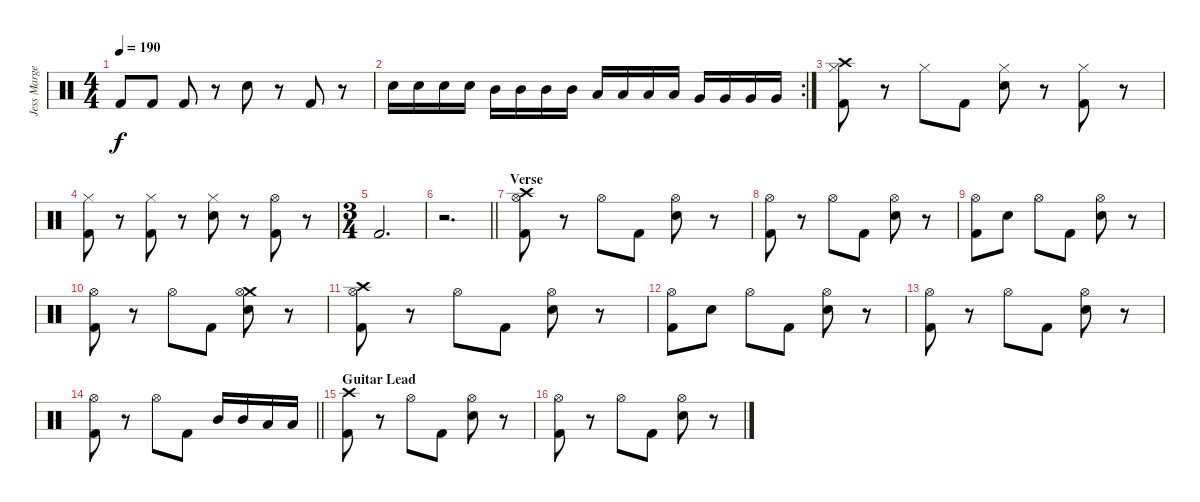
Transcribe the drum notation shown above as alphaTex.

\track ("Jess Margera" "Jess Marge") {instrument percussion}
\staff {score}
\articulation defaults
\ts (4 4)
\tempo 190
\clef neutral
\ks c "Kick (hit) 2".8{dy f} "Kick (hit) 2".8 "Kick (hit) 2".8
r.8 "Electric Snare (hit)".8 r.8 "Kick (hit) 2".8 r.8 |
\rc 2 "Electric Snare (hit)".16 "Electric Snare (hit)".16 "Electric Snare (hit)".16 "Electric Snare (hit)".16 "Mid Tom (hit)".16 "Mid Tom (hit)".16 "Mid Tom (hit)".16 "Mid Tom (hit)".16 "Low Tom (hit)".16 "Low Tom (hit)".16 "Low Tom (hit)".16 "Low Tom (hit)".16 "Very Low Tom (hit)".16 "Very Low Tom (hit)".16 "Very Low Tom (hit)".16 "Very Low Tom (hit)".16
|
("Crash high (hit)" "Hi-Hat (closed)" "Kick (hit) 2").8 r.8 "Hi-Hat (closed)".8 "Kick (hit) 2".8 ("Hi-Hat (closed)" "Electric Snare (hit)").8 r.8 ("Hi-Hat (closed)" "Kick (hit) 2").8 r.8 |
("Hi-Hat (closed)" "Kick (hit) 2").8 r.8 ("Hi-Hat (closed)" "Kick (hit) 2").8 r.8 ("Hi-Hat (closed)" "Electric Snare (hit)").8 r.8 ("Hi-Hat (open)" "Kick (hit) 2").8 r.8 |
\ts (3 4)
"Kick (hit) 2".2{d} |
\barLineRight lightlight
r.2{d} |
\section ("" "Verse")
("Crash high (hit)" "Hi-Hat (open)" "Kick (hit) 2").8 r.8 "Hi-Hat (open)".8 "Kick (hit) 2".8 ("Hi-Hat (open)" "Electric Snare (hit)").8 r.8 |
("Hi-Hat (open)" "Kick (hit) 2").8 r.8 "Hi-Hat (open)".8 "Kick (hit) 2".8 ("Hi-Hat (open)" "Electric Snare (hit)").8 r.8 |
("Hi-Hat (open)" "Kick (hit) 2").8 "Electric Snare (hit)".8 "Hi-Hat (open)".8 "Kick (hit) 2".8 ("Hi-Hat (open)" "Electric Snare (hit)").8 r.8 |
("Hi-Hat (open)" "Kick (hit) 2").8 r.8 "Hi-Hat (open)".8 "Kick (hit) 2".8 ("Crash medium (hit)" "Hi-Hat (open)" "Electric Snare (hit)").8 r.8 |
("Crash high (hit)" "Hi-Hat (open)" "Kick (hit) 2").8 r.8 "Hi-Hat (open)".8 "Kick (hit) 2".8 ("Hi-Hat (open)" "Electric Snare (hit)").8 r.8 |
("Hi-Hat (open)" "Kick (hit) 2").8 "Electric Snare (hit)".8 "Hi-Hat (open)".8 "Kick (hit) 2".8 ("Hi-Hat (open)" "Electric Snare (hit)").8 r.8 |
("Hi-Hat (open)" "Kick (hit) 2").8 r.8 "Hi-Hat (open)".8 "Kick (hit) 2".8 ("Hi-Hat (open)" "Electric Snare (hit)").8 r.8 |
\barLineRight lightlight
("Hi-Hat (open)" "Kick (hit) 2").8 r.8 "Hi-Hat (open)".8 "Kick (hit) 2".8 "Mid Tom (hit)".16 "Mid Tom (hit)".16 "Low Tom (hit)".16 "Low Tom (hit)".16 |
\section ("" "Guitar Lead")
("Crash high (hit)" "Kick (hit) 2").8 r.8 "Hi-Hat (open)".8 "Kick (hit) 2".8 ("Hi-Hat (open)" "Electric Snare (hit)").8 r.8 |
("Hi-Hat (open)" "Kick (hit) 2").8 r.8 "Hi-Hat (open)".8 "Kick (hit) 2".8 ("Hi-Hat (open)" "Electric Snare (hit)").8 r.8
